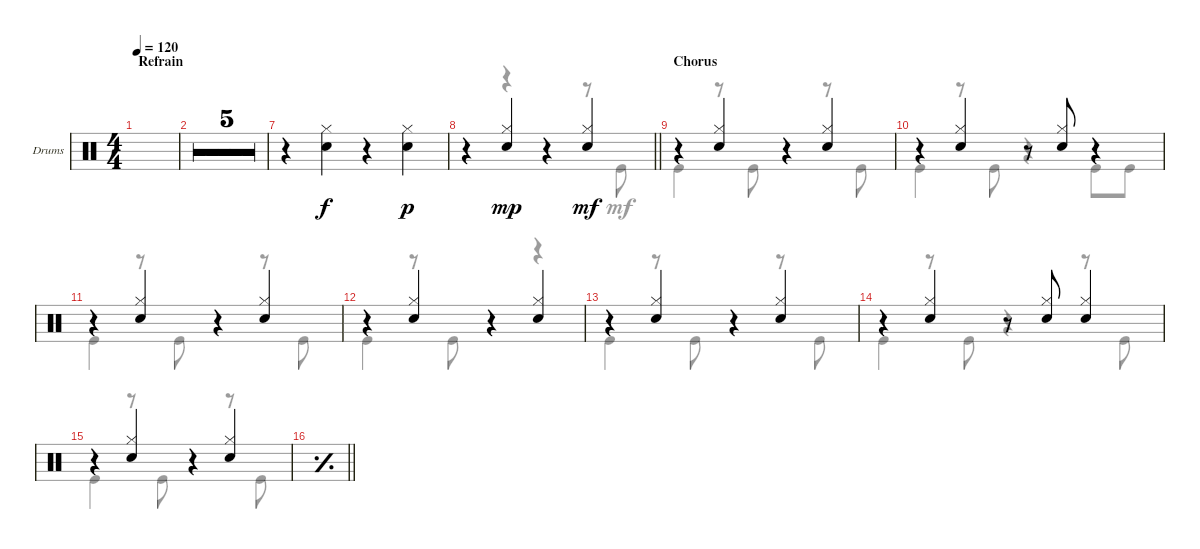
\defaultSystemsLayout 4
\bracketExtendMode groupsimilarinstruments
\firstSystemTrackNameOrientation horizontal
\otherSystemsTrackNameOrientation horizontal
\track ("Drums" "Drums") {multiBarRest instrument percussion}
\staff {score}
\articulation defaults
\voice
\ts (4 4)
\section ("" "Refrain")
\tempo 120
\clef neutral
\ks c
|
|
|
|
|
|
r.4 ("Snare (hit) 2" "Hi-Hat (closed)").4 r.4 ("Snare (hit) 2" "Hi-Hat (closed)").4{dy p} |
\barLineRight lightlight
r.4 ("Snare (hit) 2" "Hi-Hat (closed)").4{dy mp} r.4 ("Snare (hit) 2" "Hi-Hat (closed)").4{dy mf} |
\section ("" "Chorus")
r.4 ("Hi-Hat (closed)" "Snare (hit) 2").4 r.4 ("Hi-Hat (closed)" "Snare (hit) 2").4 |
r.4 ("Hi-Hat (closed)" "Snare (hit) 2").4 r.8 ("Snare (hit) 2" "Hi-Hat (closed)").8 r.4 |
r.4 ("Hi-Hat (closed)" "Snare (hit) 2").4 r.4 ("Hi-Hat (closed)" "Snare (hit) 2").4 |
r.4 ("Hi-Hat (closed)" "Snare (hit) 2").4 r.4 ("Hi-Hat (closed)" "Snare (hit) 2").4 |
r.4 ("Hi-Hat (closed)" "Snare (hit) 2").4 r.4 ("Hi-Hat (closed)" "Snare (hit) 2").4 |
r.4 ("Hi-Hat (closed)" "Snare (hit) 2").4 r.8 ("Hi-Hat (closed)" "Snare (hit) 2").8 ("Hi-Hat (closed)" "Snare (hit) 2").4 |
r.4 ("Hi-Hat (closed)" "Snare (hit) 2").4 r.4 ("Hi-Hat (closed)" "Snare (hit) 2").4 |
\simile simple
\barLineRight lightlight
\voice
\clef neutral
\ottava regular
\simile none
\ks c
|
|
|
|
|
|
|
\barLineRight lightlight
r.4 r.4 r.4 r.8 "Kick (hit)".8 |
"Kick (hit)".4 r.8 "Kick (hit)".8 r.4 r.8 "Kick (hit)".8 |
"Kick (hit)".4 r.8 "Kick (hit)".8 r.4 "Kick (hit)".8 "Kick (hit)".8 |
"Kick (hit)".4 r.8 "Kick (hit)".8 r.4 r.8 "Kick (hit)".8 |
"Kick (hit)".4 r.8 "Kick (hit)".8 r.4 r.4 |
"Kick (hit)".4 r.8 "Kick (hit)".8 r.4 r.8 "Kick (hit)".8 |
"Kick (hit)".4 r.8 "Kick (hit)".8 r.4 r.8 "Kick (hit)".8 |
"Kick (hit)".4 r.8 "Kick (hit)".8 r.4 r.8 "Kick (hit)".8 |
\simile simple
\barLineRight lightlight
